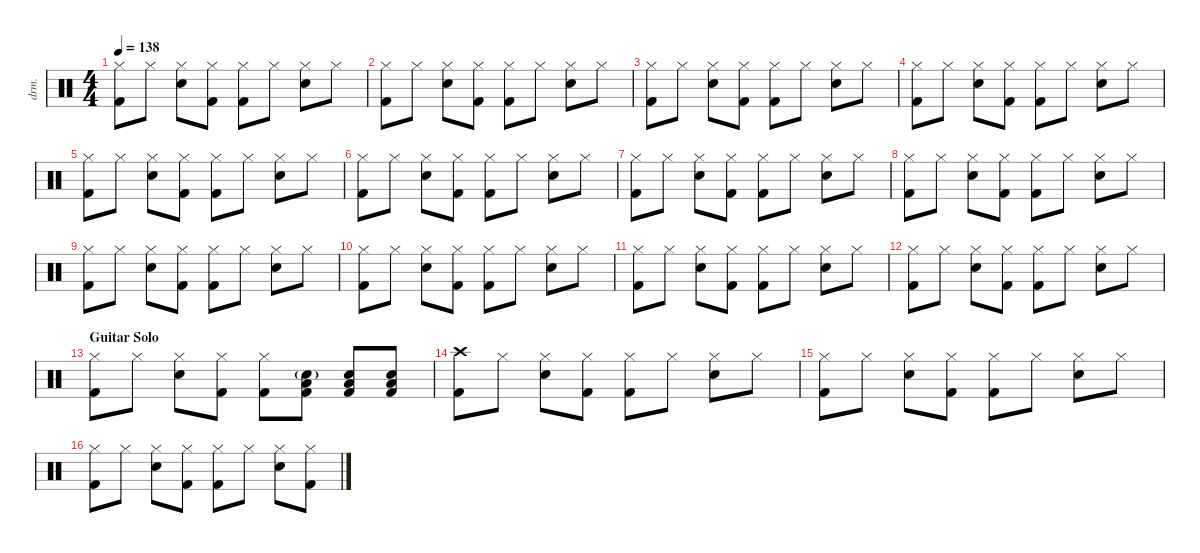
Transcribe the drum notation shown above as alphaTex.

\defaultSystemsLayout 4
\hideDynamics
\bracketExtendMode nobrackets
\otherSystemsTrackNameOrientation horizontal
\track ("Drums (Don Henley)" "drm.") {instrument percussion}
\staff {score}
\articulation defaults
\ts (4 4)
\tempo 138
\clef neutral
\ks c
("Hi-Hat (closed)" "Kick (hit) 2").8{dy f} "Hi-Hat (closed)".8 ("Hi-Hat (closed)" "Snare (hit) 2").8 ("Hi-Hat (closed)" "Kick (hit) 2").8 ("Hi-Hat (closed)" "Kick (hit) 2").8 "Hi-Hat (closed)".8 ("Hi-Hat (closed)" "Snare (hit) 2").8 "Hi-Hat (closed)".8 |
("Hi-Hat (closed)" "Kick (hit) 2").8 "Hi-Hat (closed)".8 ("Hi-Hat (closed)" "Snare (hit) 2").8 ("Hi-Hat (closed)" "Kick (hit) 2").8 ("Hi-Hat (closed)" "Kick (hit) 2").8 "Hi-Hat (closed)".8 ("Hi-Hat (closed)" "Snare (hit) 2").8 "Hi-Hat (closed)".8 |
("Hi-Hat (closed)" "Kick (hit) 2").8 "Hi-Hat (closed)".8 ("Hi-Hat (closed)" "Snare (hit) 2").8 ("Hi-Hat (closed)" "Kick (hit) 2").8 ("Hi-Hat (closed)" "Kick (hit) 2").8 "Hi-Hat (closed)".8 ("Hi-Hat (closed)" "Snare (hit) 2").8 "Hi-Hat (closed)".8 |
("Hi-Hat (closed)" "Kick (hit) 2").8 "Hi-Hat (closed)".8 ("Hi-Hat (closed)" "Snare (hit) 2").8 ("Hi-Hat (closed)" "Kick (hit) 2").8 ("Hi-Hat (closed)" "Kick (hit) 2").8 "Hi-Hat (closed)".8 ("Hi-Hat (closed)" "Snare (hit) 2").8 "Hi-Hat (closed)".8 |
("Hi-Hat (closed)" "Kick (hit) 2").8 "Hi-Hat (closed)".8 ("Hi-Hat (closed)" "Snare (hit) 2").8 ("Hi-Hat (closed)" "Kick (hit) 2").8 ("Hi-Hat (closed)" "Kick (hit) 2").8 "Hi-Hat (closed)".8 ("Hi-Hat (closed)" "Snare (hit) 2").8 "Hi-Hat (closed)".8 |
("Hi-Hat (closed)" "Kick (hit) 2").8 "Hi-Hat (closed)".8 ("Hi-Hat (closed)" "Snare (hit) 2").8 ("Hi-Hat (closed)" "Kick (hit) 2").8 ("Hi-Hat (closed)" "Kick (hit) 2").8 "Hi-Hat (closed)".8 ("Hi-Hat (closed)" "Snare (hit) 2").8 "Hi-Hat (closed)".8 |
("Hi-Hat (closed)" "Kick (hit) 2").8 "Hi-Hat (closed)".8 ("Hi-Hat (closed)" "Snare (hit) 2").8 ("Hi-Hat (closed)" "Kick (hit) 2").8 ("Hi-Hat (closed)" "Kick (hit) 2").8 "Hi-Hat (closed)".8 ("Hi-Hat (closed)" "Snare (hit) 2").8 "Hi-Hat (closed)".8 |
("Hi-Hat (closed)" "Kick (hit) 2").8 "Hi-Hat (closed)".8 ("Hi-Hat (closed)" "Snare (hit) 2").8 ("Hi-Hat (closed)" "Kick (hit) 2").8 ("Hi-Hat (closed)" "Kick (hit) 2").8 "Hi-Hat (closed)".8 ("Hi-Hat (closed)" "Snare (hit) 2").8 "Hi-Hat (closed)".8 |
("Hi-Hat (closed)" "Kick (hit) 2").8 "Hi-Hat (closed)".8 ("Hi-Hat (closed)" "Snare (hit) 2").8 ("Hi-Hat (closed)" "Kick (hit) 2").8 ("Hi-Hat (closed)" "Kick (hit) 2").8 "Hi-Hat (closed)".8 ("Hi-Hat (closed)" "Snare (hit) 2").8 "Hi-Hat (closed)".8 |
("Hi-Hat (closed)" "Kick (hit) 2").8 "Hi-Hat (closed)".8 ("Hi-Hat (closed)" "Snare (hit) 2").8 ("Hi-Hat (closed)" "Kick (hit) 2").8 ("Hi-Hat (closed)" "Kick (hit) 2").8 "Hi-Hat (closed)".8 ("Hi-Hat (closed)" "Snare (hit) 2").8 "Hi-Hat (closed)".8 |
("Hi-Hat (closed)" "Kick (hit) 2").8 "Hi-Hat (closed)".8 ("Hi-Hat (closed)" "Snare (hit) 2").8 ("Hi-Hat (closed)" "Kick (hit) 2").8 ("Hi-Hat (closed)" "Kick (hit) 2").8 "Hi-Hat (closed)".8 ("Hi-Hat (closed)" "Snare (hit) 2").8 "Hi-Hat (closed)".8 |
("Hi-Hat (closed)" "Kick (hit) 2").8 "Hi-Hat (closed)".8 ("Hi-Hat (closed)" "Snare (hit) 2").8 ("Hi-Hat (closed)" "Kick (hit) 2").8 ("Hi-Hat (closed)" "Kick (hit) 2").8 "Hi-Hat (closed)".8 ("Hi-Hat (closed)" "Snare (hit) 2").8 "Hi-Hat (closed)".8 |
\section ("" "Guitar Solo")
("Hi-Hat (closed)" "Kick (hit) 2").8 "Hi-Hat (closed)".8 ("Hi-Hat (closed)" "Snare (hit) 2").8 ("Hi-Hat (closed)" "Kick (hit) 2").8 ("Hi-Hat (closed)" "Kick (hit) 2").8 ("Snare (hit) 2"{g} "Low Floor Tom (hit)" "Kick (hit) 2").8 ("Snare (hit) 2" "Low Floor Tom (hit)" "Kick (hit) 2").8{dy mf} ("Snare (hit) 2" "Low Floor Tom (hit)" "Kick (hit) 2").8{dy f} |
("Crash high (hit)" "Kick (hit) 2").8 "Hi-Hat (closed)".8 ("Hi-Hat (closed)" "Snare (hit) 2").8 ("Hi-Hat (closed)" "Kick (hit) 2").8 ("Hi-Hat (closed)" "Kick (hit) 2").8 "Hi-Hat (closed)".8 ("Hi-Hat (closed)" "Snare (hit) 2").8 "Hi-Hat (closed)".8 |
("Hi-Hat (closed)" "Kick (hit) 2").8 "Hi-Hat (closed)".8 ("Hi-Hat (closed)" "Snare (hit) 2").8 ("Hi-Hat (closed)" "Kick (hit) 2").8 ("Hi-Hat (closed)" "Kick (hit) 2").8 "Hi-Hat (closed)".8 ("Hi-Hat (closed)" "Snare (hit) 2").8 "Hi-Hat (closed)".8 |
("Hi-Hat (closed)" "Kick (hit) 2").8 "Hi-Hat (closed)".8 ("Hi-Hat (closed)" "Snare (hit) 2").8 ("Hi-Hat (closed)" "Kick (hit) 2").8 ("Hi-Hat (closed)" "Kick (hit) 2").8 "Hi-Hat (closed)".8 ("Hi-Hat (closed)" "Snare (hit) 2").8 ("Hi-Hat (closed)" "Kick (hit) 2").8
